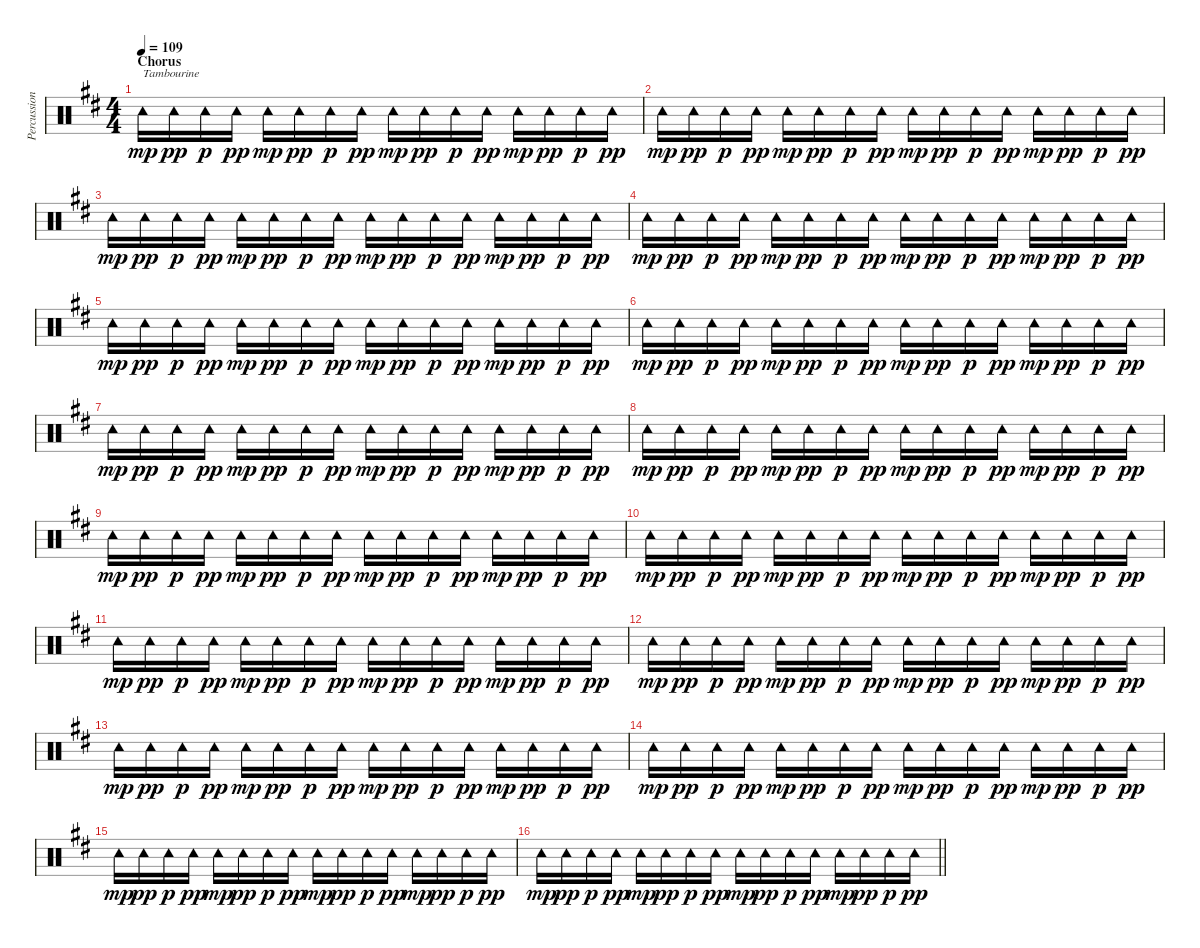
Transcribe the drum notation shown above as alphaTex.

\track ("Percussion (Rick McMurray)" "Percussion") {instrument percussion}
\staff {score}
\articulation defaults
\ts (4 4)
\section ("" "Chorus")
\tempo 109
\clef neutral
\ks d "Tambourine (hit)".16{txt "Tambourine" dy mp} "Tambourine (hit)".16{dy pp} "Tambourine (hit)".16{dy p} "Tambourine (hit)".16{dy pp} "Tambourine (hit)".16{dy mp} "Tambourine (hit)".16{dy pp} "Tambourine (hit)".16{dy p} "Tambourine (hit)".16{dy pp} "Tambourine (hit)".16{dy mp} "Tambourine (hit)".16{dy pp} "Tambourine (hit)".16{dy p} "Tambourine (hit)".16{dy pp} "Tambourine (hit)".16{dy mp} "Tambourine (hit)".16{dy pp} "Tambourine (hit)".16{dy p} "Tambourine (hit)".16{dy pp}
|
"Tambourine (hit)".16{dy mp} "Tambourine (hit)".16{dy pp} "Tambourine (hit)".16{dy p} "Tambourine (hit)".16{dy pp} "Tambourine (hit)".16{dy mp} "Tambourine (hit)".16{dy pp} "Tambourine (hit)".16{dy p} "Tambourine (hit)".16{dy pp} "Tambourine (hit)".16{dy mp} "Tambourine (hit)".16{dy pp} "Tambourine (hit)".16{dy p} "Tambourine (hit)".16{dy pp} "Tambourine (hit)".16{dy mp} "Tambourine (hit)".16{dy pp} "Tambourine (hit)".16{dy p} "Tambourine (hit)".16{dy pp} |
"Tambourine (hit)".16{dy mp} "Tambourine (hit)".16{dy pp} "Tambourine (hit)".16{dy p} "Tambourine (hit)".16{dy pp} "Tambourine (hit)".16{dy mp} "Tambourine (hit)".16{dy pp} "Tambourine (hit)".16{dy p} "Tambourine (hit)".16{dy pp} "Tambourine (hit)".16{dy mp} "Tambourine (hit)".16{dy pp} "Tambourine (hit)".16{dy p} "Tambourine (hit)".16{dy pp} "Tambourine (hit)".16{dy mp} "Tambourine (hit)".16{dy pp} "Tambourine (hit)".16{dy p} "Tambourine (hit)".16{dy pp} |
"Tambourine (hit)".16{dy mp} "Tambourine (hit)".16{dy pp} "Tambourine (hit)".16{dy p} "Tambourine (hit)".16{dy pp} "Tambourine (hit)".16{dy mp} "Tambourine (hit)".16{dy pp} "Tambourine (hit)".16{dy p} "Tambourine (hit)".16{dy pp} "Tambourine (hit)".16{dy mp} "Tambourine (hit)".16{dy pp} "Tambourine (hit)".16{dy p} "Tambourine (hit)".16{dy pp} "Tambourine (hit)".16{dy mp} "Tambourine (hit)".16{dy pp} "Tambourine (hit)".16{dy p} "Tambourine (hit)".16{dy pp} |
"Tambourine (hit)".16{dy mp} "Tambourine (hit)".16{dy pp} "Tambourine (hit)".16{dy p} "Tambourine (hit)".16{dy pp} "Tambourine (hit)".16{dy mp} "Tambourine (hit)".16{dy pp} "Tambourine (hit)".16{dy p} "Tambourine (hit)".16{dy pp} "Tambourine (hit)".16{dy mp} "Tambourine (hit)".16{dy pp} "Tambourine (hit)".16{dy p} "Tambourine (hit)".16{dy pp} "Tambourine (hit)".16{dy mp} "Tambourine (hit)".16{dy pp} "Tambourine (hit)".16{dy p} "Tambourine (hit)".16{dy pp} |
"Tambourine (hit)".16{dy mp} "Tambourine (hit)".16{dy pp} "Tambourine (hit)".16{dy p} "Tambourine (hit)".16{dy pp} "Tambourine (hit)".16{dy mp} "Tambourine (hit)".16{dy pp} "Tambourine (hit)".16{dy p} "Tambourine (hit)".16{dy pp} "Tambourine (hit)".16{dy mp} "Tambourine (hit)".16{dy pp} "Tambourine (hit)".16{dy p} "Tambourine (hit)".16{dy pp} "Tambourine (hit)".16{dy mp} "Tambourine (hit)".16{dy pp} "Tambourine (hit)".16{dy p} "Tambourine (hit)".16{dy pp} |
"Tambourine (hit)".16{dy mp} "Tambourine (hit)".16{dy pp} "Tambourine (hit)".16{dy p} "Tambourine (hit)".16{dy pp} "Tambourine (hit)".16{dy mp} "Tambourine (hit)".16{dy pp} "Tambourine (hit)".16{dy p} "Tambourine (hit)".16{dy pp} "Tambourine (hit)".16{dy mp} "Tambourine (hit)".16{dy pp} "Tambourine (hit)".16{dy p} "Tambourine (hit)".16{dy pp} "Tambourine (hit)".16{dy mp} "Tambourine (hit)".16{dy pp} "Tambourine (hit)".16{dy p} "Tambourine (hit)".16{dy pp} |
"Tambourine (hit)".16{dy mp} "Tambourine (hit)".16{dy pp} "Tambourine (hit)".16{dy p} "Tambourine (hit)".16{dy pp} "Tambourine (hit)".16{dy mp} "Tambourine (hit)".16{dy pp} "Tambourine (hit)".16{dy p} "Tambourine (hit)".16{dy pp} "Tambourine (hit)".16{dy mp} "Tambourine (hit)".16{dy pp} "Tambourine (hit)".16{dy p} "Tambourine (hit)".16{dy pp} "Tambourine (hit)".16{dy mp} "Tambourine (hit)".16{dy pp} "Tambourine (hit)".16{dy p} "Tambourine (hit)".16{dy pp} |
"Tambourine (hit)".16{dy mp} "Tambourine (hit)".16{dy pp} "Tambourine (hit)".16{dy p} "Tambourine (hit)".16{dy pp} "Tambourine (hit)".16{dy mp} "Tambourine (hit)".16{dy pp} "Tambourine (hit)".16{dy p} "Tambourine (hit)".16{dy pp} "Tambourine (hit)".16{dy mp} "Tambourine (hit)".16{dy pp} "Tambourine (hit)".16{dy p} "Tambourine (hit)".16{dy pp} "Tambourine (hit)".16{dy mp} "Tambourine (hit)".16{dy pp} "Tambourine (hit)".16{dy p} "Tambourine (hit)".16{dy pp} |
"Tambourine (hit)".16{dy mp} "Tambourine (hit)".16{dy pp} "Tambourine (hit)".16{dy p} "Tambourine (hit)".16{dy pp} "Tambourine (hit)".16{dy mp} "Tambourine (hit)".16{dy pp} "Tambourine (hit)".16{dy p} "Tambourine (hit)".16{dy pp} "Tambourine (hit)".16{dy mp} "Tambourine (hit)".16{dy pp} "Tambourine (hit)".16{dy p} "Tambourine (hit)".16{dy pp} "Tambourine (hit)".16{dy mp} "Tambourine (hit)".16{dy pp} "Tambourine (hit)".16{dy p} "Tambourine (hit)".16{dy pp} |
"Tambourine (hit)".16{dy mp} "Tambourine (hit)".16{dy pp} "Tambourine (hit)".16{dy p} "Tambourine (hit)".16{dy pp} "Tambourine (hit)".16{dy mp} "Tambourine (hit)".16{dy pp} "Tambourine (hit)".16{dy p} "Tambourine (hit)".16{dy pp} "Tambourine (hit)".16{dy mp} "Tambourine (hit)".16{dy pp} "Tambourine (hit)".16{dy p} "Tambourine (hit)".16{dy pp} "Tambourine (hit)".16{dy mp} "Tambourine (hit)".16{dy pp} "Tambourine (hit)".16{dy p} "Tambourine (hit)".16{dy pp} |
"Tambourine (hit)".16{dy mp} "Tambourine (hit)".16{dy pp} "Tambourine (hit)".16{dy p} "Tambourine (hit)".16{dy pp} "Tambourine (hit)".16{dy mp} "Tambourine (hit)".16{dy pp} "Tambourine (hit)".16{dy p} "Tambourine (hit)".16{dy pp} "Tambourine (hit)".16{dy mp} "Tambourine (hit)".16{dy pp} "Tambourine (hit)".16{dy p} "Tambourine (hit)".16{dy pp} "Tambourine (hit)".16{dy mp} "Tambourine (hit)".16{dy pp} "Tambourine (hit)".16{dy p} "Tambourine (hit)".16{dy pp} |
"Tambourine (hit)".16{dy mp} "Tambourine (hit)".16{dy pp} "Tambourine (hit)".16{dy p} "Tambourine (hit)".16{dy pp} "Tambourine (hit)".16{dy mp} "Tambourine (hit)".16{dy pp} "Tambourine (hit)".16{dy p} "Tambourine (hit)".16{dy pp} "Tambourine (hit)".16{dy mp} "Tambourine (hit)".16{dy pp} "Tambourine (hit)".16{dy p} "Tambourine (hit)".16{dy pp} "Tambourine (hit)".16{dy mp} "Tambourine (hit)".16{dy pp} "Tambourine (hit)".16{dy p} "Tambourine (hit)".16{dy pp} |
"Tambourine (hit)".16{dy mp} "Tambourine (hit)".16{dy pp} "Tambourine (hit)".16{dy p} "Tambourine (hit)".16{dy pp} "Tambourine (hit)".16{dy mp} "Tambourine (hit)".16{dy pp} "Tambourine (hit)".16{dy p} "Tambourine (hit)".16{dy pp} "Tambourine (hit)".16{dy mp} "Tambourine (hit)".16{dy pp} "Tambourine (hit)".16{dy p} "Tambourine (hit)".16{dy pp} "Tambourine (hit)".16{dy mp} "Tambourine (hit)".16{dy pp} "Tambourine (hit)".16{dy p} "Tambourine (hit)".16{dy pp} |
"Tambourine (hit)".16{dy mp} "Tambourine (hit)".16{dy pp} "Tambourine (hit)".16{dy p} "Tambourine (hit)".16{dy pp} "Tambourine (hit)".16{dy mp} "Tambourine (hit)".16{dy pp} "Tambourine (hit)".16{dy p} "Tambourine (hit)".16{dy pp} "Tambourine (hit)".16{dy mp} "Tambourine (hit)".16{dy pp} "Tambourine (hit)".16{dy p} "Tambourine (hit)".16{dy pp} "Tambourine (hit)".16{dy mp} "Tambourine (hit)".16{dy pp} "Tambourine (hit)".16{dy p} "Tambourine (hit)".16{dy pp} |
\barLineRight lightlight "Tambourine (hit)".16{dy mp} "Tambourine (hit)".16{dy pp} "Tambourine (hit)".16{dy p} "Tambourine (hit)".16{dy pp} "Tambourine (hit)".16{dy mp} "Tambourine (hit)".16{dy pp} "Tambourine (hit)".16{dy p} "Tambourine (hit)".16{dy pp} "Tambourine (hit)".16{dy mp} "Tambourine (hit)".16{dy pp} "Tambourine (hit)".16{dy p} "Tambourine (hit)".16{dy pp} "Tambourine (hit)".16{dy mp} "Tambourine (hit)".16{dy pp} "Tambourine (hit)".16{dy p} "Tambourine (hit)".16{dy pp}
